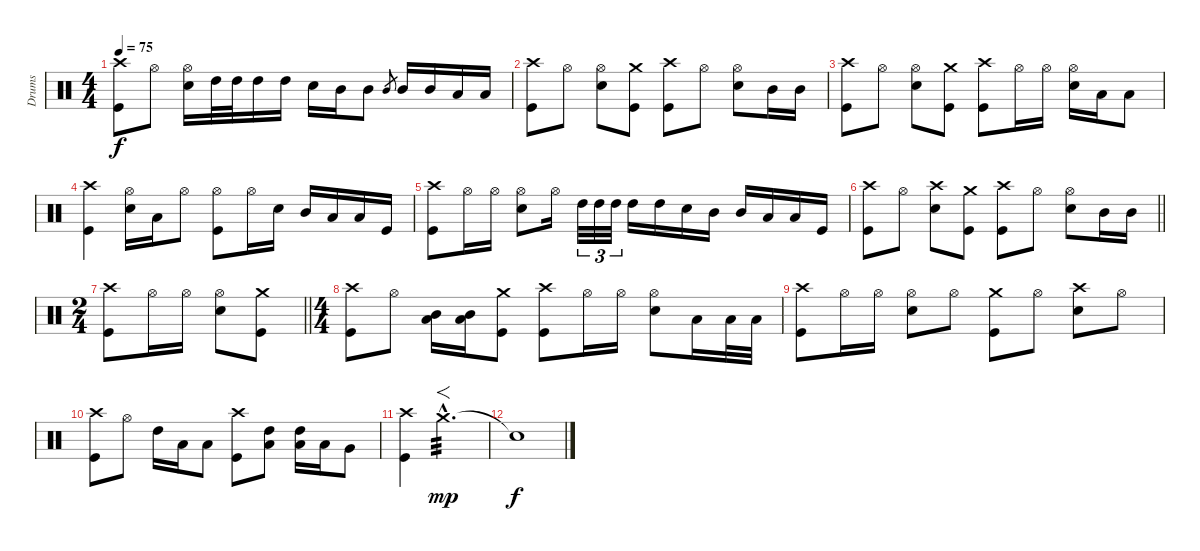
\track ("Drums" "Drums") {instrument percussion}
\staff {score}
\articulation defaults
\ts (4 4)
\tempo 75
\clef neutral
\ks c
("Crash high (hit)" "Kick (hit)").8{dy f} "Hi-Hat (open)".8 ("Hi-Hat (open)" "Snare (hit) 2").16 "High Tom (hit)".32 "High Tom (hit)".32 "High Tom (hit)".16 "High Tom (hit)".16 "Snare (hit) 2".16 "Mid Tom (hit)".16 "Mid Tom (hit)".8 "Mid Tom (hit)".8{gr} "Mid Tom (hit)".16 "Mid Tom (hit)".16 "Low Tom (hit)".16 "Low Tom (hit)".16 |
("Crash high (hit)" "Kick (hit)").8 "Hi-Hat (open)".8 ("Hi-Hat (open)" "Snare (hit) 2").8 ("Crash medium (hit)" "Kick (hit)").8 ("Crash high (hit)" "Kick (hit)").8 "Hi-Hat (open)".8 ("Hi-Hat (open)" "Snare (hit) 2").8 "Mid Tom (hit)".16 "Mid Tom (hit)".16 |
("Crash high (hit)" "Kick (hit)").8 "Hi-Hat (open)".8 ("Hi-Hat (open)" "Snare (hit) 2").8 ("Crash medium (hit)" "Kick (hit)").8 ("Crash high (hit)" "Kick (hit)").8 "Hi-Hat (open)".16 "Hi-Hat (open)".16 ("Hi-Hat (open)" "Snare (hit) 2").16 "Low Tom (hit)".16 "Low Tom (hit)".8 |
("Crash high (hit)" "Kick (hit)").4 ("Hi-Hat (open)" "Snare (hit) 2").16 "Low Tom (hit)".16 "Hi-Hat (open)".8 ("Hi-Hat (open)" "Kick (hit)").8 "Hi-Hat (open)".16 "Snare (hit) 2".16 "Mid Tom (hit)".16 "Low Tom (hit)".16 "Low Tom (hit)".16 "Kick (hit)".16 |
("Crash high (hit)" "Kick (hit)").8 "Hi-Hat (open)".16 "Hi-Hat (open)".16 ("Hi-Hat (open)" "Snare (hit) 2").8 "Hi-Hat (open)".16 "High Tom (hit)".32{tu (3 2)} "High Tom (hit)".32{tu (3 2)} "High Tom (hit)".32{tu (3 2)} "High Tom (hit)".16 "High Tom (hit)".16 "Snare (hit) 2".16 "Mid Tom (hit)".16 "Mid Tom (hit)".16 "Low Tom (hit)".16 "Low Tom (hit)".16 "Kick (hit)".16 |
\barLineRight lightlight
("Crash high (hit)" "Kick (hit)").8 "Hi-Hat (open)".8 ("Crash high (hit)" "Snare (hit) 2").8 ("Crash medium (hit)" "Kick (hit)").8 ("Crash high (hit)" "Kick (hit)").8 "Hi-Hat (open)".8 ("Hi-Hat (open)" "Snare (hit) 2").8 "Mid Tom (hit)".16 "Mid Tom (hit)".16 |
\ts (2 4)
\barLineRight lightlight
("Crash high (hit)" "Kick (hit)").8 "Hi-Hat (open)".16 "Hi-Hat (open)".16 ("Hi-Hat (open)" "Snare (hit) 2").8 ("Crash medium (hit)" "Kick (hit)").8 |
\ts (4 4)
("Crash high (hit)" "Kick (hit)").8 "Hi-Hat (open)".8 ("Mid Tom (hit)" "Low Tom (hit)").16 ("Mid Tom (hit)" "Low Tom (hit)").16 ("Crash medium (hit)" "Kick (hit)").8 ("Crash high (hit)" "Kick (hit)").8 "Hi-Hat (open)".16 "Hi-Hat (open)".16 ("Hi-Hat (open)" "Snare (hit) 2").8 "Low Tom (hit)".16 "Low Tom (hit)".32 "Low Tom (hit)".32 |
("Crash high (hit)" "Kick (hit)").8 "Hi-Hat (open)".16 "Hi-Hat (open)".16 ("Hi-Hat (open)" "Snare (hit) 2").8 "Hi-Hat (open)".8 ("Crash medium (hit)" "Kick (hit)").8 "Hi-Hat (open)".8 ("Crash high (hit)" "Snare (hit) 2").8 "Hi-Hat (open)".8 |
("Crash high (hit)" "Kick (hit)").8 "Hi-Hat (open)".8 "High Tom (hit)".16 "Low Tom (hit)".16 "Low Tom (hit)".8 ("Crash high (hit)" "Kick (hit)").8 ("High Tom (hit)" "Low Tom (hit)").8 ("High Tom (hit)" "Low Tom (hit)").16 "Low Tom (hit)".16 "Very Low Tom (hit)".8 |
("Crash high (hit)" "Kick (hit)").4 "Crash medium (hit)"{hac}.2{f d tp 3 dy mp} |
"Snare (hit)"{t}.1{dy f}
